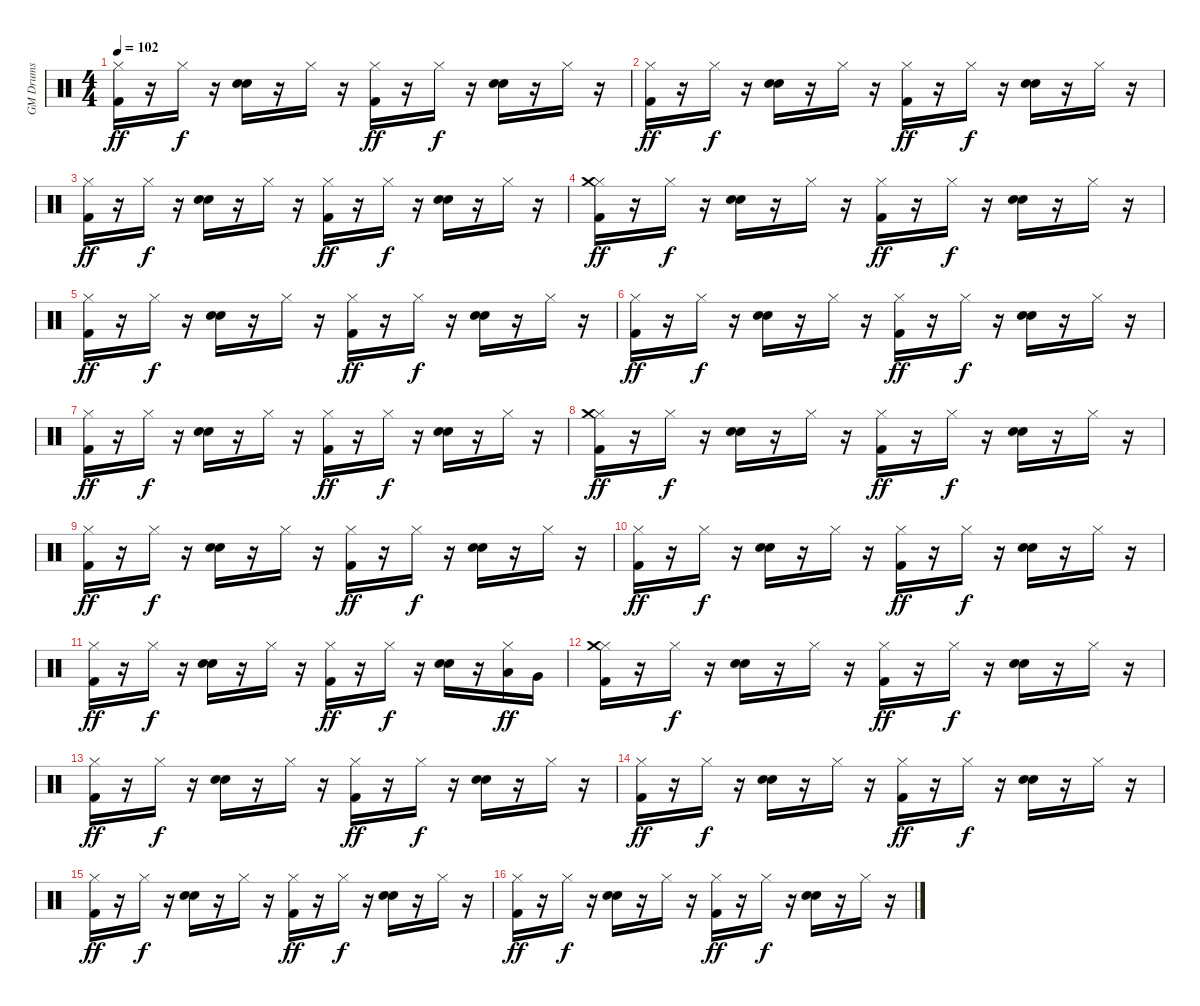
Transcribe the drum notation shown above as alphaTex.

\track ("GM Drums" "GM Drums") {instrument percussion}
\staff {score}
\articulation defaults
\ts (4 4)
\tempo 102
\clef neutral
\ks c
("Kick (hit) 2" "Hi-Hat (closed)").16{dy ff} r.16 "Hi-Hat (closed)".16{dy f} r.16 ("Metronome (bell)" "Hand Clap (hit)").16 r.16 "Hi-Hat (closed)".16 r.16 ("Kick (hit) 2" "Hi-Hat (closed)").16{dy ff} r.16 "Hi-Hat (closed)".16{dy f} r.16 ("Metronome (bell)" "Hand Clap (hit)").16 r.16 "Hi-Hat (closed)".16 r.16 |
("Kick (hit) 2" "Hi-Hat (closed)").16{dy ff} r.16 "Hi-Hat (closed)".16{dy f} r.16 ("Metronome (bell)" "Hand Clap (hit)").16 r.16 "Hi-Hat (closed)".16 r.16 ("Kick (hit) 2" "Hi-Hat (closed)").16{dy ff} r.16 "Hi-Hat (closed)".16{dy f} r.16 ("Metronome (bell)" "Hand Clap (hit)").16 r.16 "Hi-Hat (closed)".16 r.16 |
("Kick (hit) 2" "Hi-Hat (closed)").16{dy ff} r.16 "Hi-Hat (closed)".16{dy f} r.16 ("Metronome (bell)" "Hand Clap (hit)").16 r.16 "Hi-Hat (closed)".16 r.16 ("Kick (hit) 2" "Hi-Hat (closed)").16{dy ff} r.16 "Hi-Hat (closed)".16{dy f} r.16 ("Metronome (bell)" "Hand Clap (hit)").16 r.16 "Hi-Hat (closed)".16 r.16 |
("Kick (hit) 2" "Hi-Hat (closed)" "Crash medium (hit)").16{dy ff} r.16 "Hi-Hat (closed)".16{dy f} r.16 ("Metronome (bell)" "Hand Clap (hit)").16 r.16 "Hi-Hat (closed)".16 r.16 ("Kick (hit) 2" "Hi-Hat (closed)").16{dy ff} r.16 "Hi-Hat (closed)".16{dy f} r.16 ("Metronome (bell)" "Hand Clap (hit)").16 r.16 "Hi-Hat (closed)".16 r.16 |
("Kick (hit) 2" "Hi-Hat (closed)").16{dy ff} r.16 "Hi-Hat (closed)".16{dy f} r.16 ("Metronome (bell)" "Hand Clap (hit)").16 r.16 "Hi-Hat (closed)".16 r.16 ("Kick (hit) 2" "Hi-Hat (closed)").16{dy ff} r.16 "Hi-Hat (closed)".16{dy f} r.16 ("Metronome (bell)" "Hand Clap (hit)").16 r.16 "Hi-Hat (closed)".16 r.16 |
("Kick (hit) 2" "Hi-Hat (closed)").16{dy ff} r.16 "Hi-Hat (closed)".16{dy f} r.16 ("Metronome (bell)" "Hand Clap (hit)").16 r.16 "Hi-Hat (closed)".16 r.16 ("Kick (hit) 2" "Hi-Hat (closed)").16{dy ff} r.16 "Hi-Hat (closed)".16{dy f} r.16 ("Metronome (bell)" "Hand Clap (hit)").16 r.16 "Hi-Hat (closed)".16 r.16 |
("Kick (hit) 2" "Hi-Hat (closed)").16{dy ff} r.16 "Hi-Hat (closed)".16{dy f} r.16 ("Metronome (bell)" "Hand Clap (hit)").16 r.16 "Hi-Hat (closed)".16 r.16 ("Kick (hit) 2" "Hi-Hat (closed)").16{dy ff} r.16 "Hi-Hat (closed)".16{dy f} r.16 ("Metronome (bell)" "Hand Clap (hit)").16 r.16 "Hi-Hat (closed)".16 r.16 |
("Kick (hit) 2" "Hi-Hat (closed)" "Crash medium (hit)").16{dy ff} r.16 "Hi-Hat (closed)".16{dy f} r.16 ("Metronome (bell)" "Hand Clap (hit)").16 r.16 "Hi-Hat (closed)".16 r.16 ("Kick (hit) 2" "Hi-Hat (closed)").16{dy ff} r.16 "Hi-Hat (closed)".16{dy f} r.16 ("Metronome (bell)" "Hand Clap (hit)").16 r.16 "Hi-Hat (closed)".16 r.16 |
("Kick (hit) 2" "Hi-Hat (closed)").16{dy ff} r.16 "Hi-Hat (closed)".16{dy f} r.16 ("Metronome (bell)" "Hand Clap (hit)").16 r.16 "Hi-Hat (closed)".16 r.16 ("Kick (hit) 2" "Hi-Hat (closed)").16{dy ff} r.16 "Hi-Hat (closed)".16{dy f} r.16 ("Metronome (bell)" "Hand Clap (hit)").16 r.16 "Hi-Hat (closed)".16 r.16 |
("Kick (hit) 2" "Hi-Hat (closed)").16{dy ff} r.16 "Hi-Hat (closed)".16{dy f} r.16 ("Metronome (bell)" "Hand Clap (hit)").16 r.16 "Hi-Hat (closed)".16 r.16 ("Kick (hit) 2" "Hi-Hat (closed)").16{dy ff} r.16 "Hi-Hat (closed)".16{dy f} r.16 ("Metronome (bell)" "Hand Clap (hit)").16 r.16 "Hi-Hat (closed)".16 r.16 |
("Kick (hit) 2" "Hi-Hat (closed)").16{dy ff} r.16 "Hi-Hat (closed)".16{dy f} r.16 ("Metronome (bell)" "Hand Clap (hit)").16 r.16 "Hi-Hat (closed)".16 r.16 ("Kick (hit) 2" "Hi-Hat (closed)").16{dy ff} r.16 "Hi-Hat (closed)".16{dy f} r.16 ("Metronome (bell)" "Hand Clap (hit)").16 r.16 ("Hi-Hat (closed)" "Low Tom (hit)").16{dy ff} "Very Low Tom (hit)".16 |
("Kick (hit) 2" "Hi-Hat (closed)" "Crash medium (hit)").16 r.16 "Hi-Hat (closed)".16{dy f} r.16 ("Metronome (bell)" "Hand Clap (hit)").16 r.16 "Hi-Hat (closed)".16 r.16 ("Kick (hit) 2" "Hi-Hat (closed)").16{dy ff} r.16 "Hi-Hat (closed)".16{dy f} r.16 ("Metronome (bell)" "Hand Clap (hit)").16 r.16 "Hi-Hat (closed)".16 r.16 |
("Kick (hit) 2" "Hi-Hat (closed)").16{dy ff} r.16 "Hi-Hat (closed)".16{dy f} r.16 ("Metronome (bell)" "Hand Clap (hit)").16 r.16 "Hi-Hat (closed)".16 r.16 ("Kick (hit) 2" "Hi-Hat (closed)").16{dy ff} r.16 "Hi-Hat (closed)".16{dy f} r.16 ("Metronome (bell)" "Hand Clap (hit)").16 r.16 "Hi-Hat (closed)".16 r.16 |
("Kick (hit) 2" "Hi-Hat (closed)").16{dy ff} r.16 "Hi-Hat (closed)".16{dy f} r.16 ("Metronome (bell)" "Hand Clap (hit)").16 r.16 "Hi-Hat (closed)".16 r.16 ("Kick (hit) 2" "Hi-Hat (closed)").16{dy ff} r.16 "Hi-Hat (closed)".16{dy f} r.16 ("Metronome (bell)" "Hand Clap (hit)").16 r.16 "Hi-Hat (closed)".16 r.16 |
("Kick (hit) 2" "Hi-Hat (closed)").16{dy ff} r.16 "Hi-Hat (closed)".16{dy f} r.16 ("Metronome (bell)" "Hand Clap (hit)").16 r.16 "Hi-Hat (closed)".16 r.16 ("Kick (hit) 2" "Hi-Hat (closed)").16{dy ff} r.16 "Hi-Hat (closed)".16{dy f} r.16 ("Metronome (bell)" "Hand Clap (hit)").16 r.16 "Hi-Hat (closed)".16 r.16 |
("Kick (hit) 2" "Hi-Hat (closed)").16{dy ff} r.16 "Hi-Hat (closed)".16{dy f} r.16 ("Metronome (bell)" "Hand Clap (hit)").16 r.16 "Hi-Hat (closed)".16 r.16 ("Kick (hit) 2" "Hi-Hat (closed)").16{dy ff} r.16 "Hi-Hat (closed)".16{dy f} r.16 ("Metronome (bell)" "Hand Clap (hit)").16 r.16 "Hi-Hat (closed)".16 r.16
